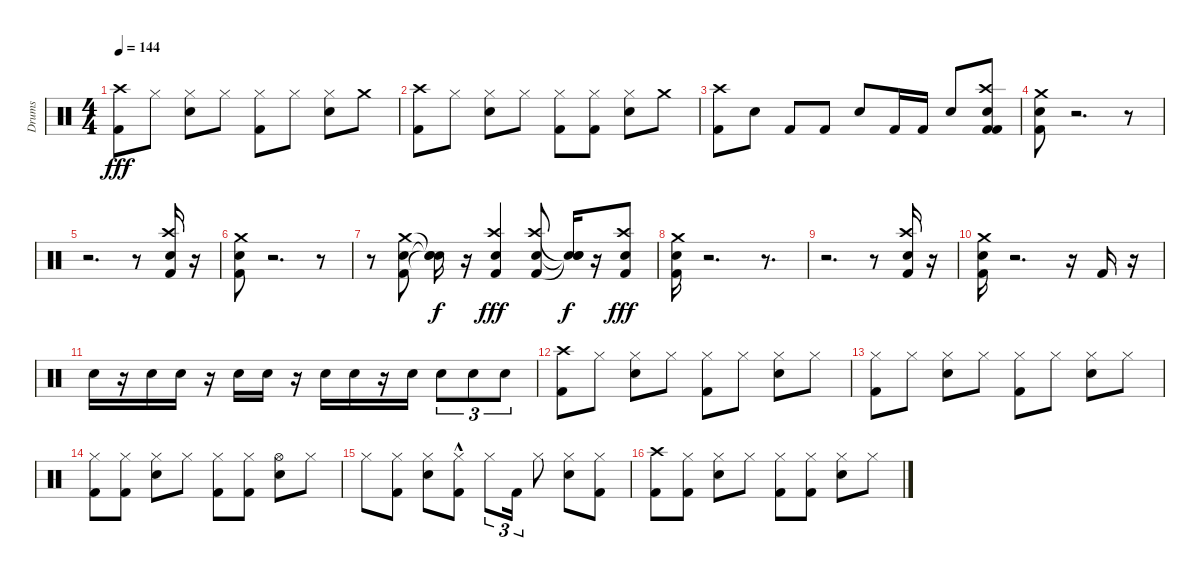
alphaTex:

\track ("Drums" "Drums") {instrument percussion}
\staff {score}
\articulation defaults
\ts (4 4)
\tempo 144
\clef neutral
\ks c
("Kick (hit) 2" "Crash high (hit)").8{dy fff} "Hi-Hat (closed)".8 ("Hi-Hat (closed)" "Snare (hit) 2").8 "Hi-Hat (closed)".8 ("Kick (hit) 2" "Hi-Hat (closed)").8 "Hi-Hat (closed)".8 ("Snare (hit) 2" "Hi-Hat (closed)").8 "Crash medium (hit)".8 |
("Kick (hit) 2" "Crash high (hit)").8 "Hi-Hat (closed)".8 ("Hi-Hat (closed)" "Snare (hit) 2").8 "Hi-Hat (closed)".8 ("Hi-Hat (closed)" "Kick (hit) 2").8 ("Hi-Hat (closed)" "Kick (hit) 2").8 ("Hi-Hat (closed)" "Snare (hit) 2").8 "Crash medium (hit)".8 |
("Crash high (hit)" "Kick (hit) 2").8 "Snare (hit) 2".8 "Kick (hit) 2".8 "Kick (hit) 2".8 "Snare (hit) 2".8 "Kick (hit) 2".16 "Kick (hit) 2".16 "Snare (hit) 2".8 ("Crash high (hit)" "Snare (hit) 2" "Kick (hit) 2" "Kick (hit) 2").8 |
("Kick (hit) 2" "Snare (hit) 2" "Crash medium (hit)").8 r.2{d} r.8 |
r.2{d} r.8 ("Kick (hit) 2" "Snare (hit) 2" "Crash high (hit)").16 r.16 |
("Kick (hit) 2" "Snare (hit) 2" "Crash medium (hit)").8 r.2{d} r.8 |
r.8 ("Kick (hit) 2" "Snare (hit) 2" "Crash medium (hit)").8 ("Snare (hit)"{t} "Snare (hit)"{t} "Snare (hit)"{t}).16{dy f} r.16 ("Kick (hit) 2" "Snare (hit) 2" "Crash high (hit)").4{dy fff} ("Kick (hit) 2" "Snare (hit) 2" "Crash high (hit)").8 ("Snare (hit)"{t} "Snare (hit)"{t} "Snare (hit)"{t}).16{dy f} r.16 ("Kick (hit) 2" "Snare (hit) 2" "Crash high (hit)").8{dy fff} |
("Kick (hit) 2" "Snare (hit) 2" "Crash medium (hit)").16 r.2{d} r.8{d} |
r.2{d} r.8 ("Kick (hit) 2" "Snare (hit) 2" "Crash high (hit)").16 r.16 |
("Kick (hit) 2" "Snare (hit) 2" "Crash medium (hit)").16 r.2{d} r.16 "Kick (hit) 2".16 r.16 |
"Snare (hit) 2".16 r.16 "Snare (hit) 2".16 "Snare (hit) 2".16 r.16 "Snare (hit) 2".16 "Snare (hit) 2".16 r.16 "Snare (hit) 2".16 "Snare (hit) 2".16 r.16 "Snare (hit) 2".16 "Snare (hit) 2".8{tu (3 2)} "Snare (hit) 2".8{tu (3 2)} "Snare (hit) 2".8{tu (3 2)} |
("Crash high (hit)" "Kick (hit) 2").8 "Hi-Hat (closed)".8 ("Snare (hit) 2" "Hi-Hat (closed)").8 "Hi-Hat (closed)".8 ("Kick (hit) 2" "Hi-Hat (closed)").8 "Hi-Hat (closed)".8 ("Snare (hit) 2" "Hi-Hat (closed)").8 "Hi-Hat (closed)".8 |
("Kick (hit) 2" "Hi-Hat (closed)").8 "Hi-Hat (closed)".8 ("Snare (hit) 2" "Hi-Hat (closed)").8 "Hi-Hat (closed)".8 ("Kick (hit) 2" "Hi-Hat (closed)").8 "Hi-Hat (closed)".8 ("Snare (hit) 2" "Hi-Hat (closed)").8 "Hi-Hat (closed)".8 |
("Kick (hit) 2" "Hi-Hat (closed)").8 ("Kick (hit) 2" "Hi-Hat (closed)").8 ("Snare (hit) 2" "Hi-Hat (closed)").8 "Hi-Hat (closed)".8 ("Kick (hit) 2" "Hi-Hat (closed)").8 ("Kick (hit) 2" "Hi-Hat (closed)").8 ("Snare (hit) 2" "Hi-Hat (open)").8 "Hi-Hat (closed)".8 |
"Hi-Hat (closed)".8 ("Kick (hit) 2" "Hi-Hat (closed)").8 ("Snare (hit) 2" "Hi-Hat (closed)").8 ("Hi-Hat (closed)" "Kick (hit) 2"{hac}).8 "Hi-Hat (closed)".8{tu (3 2)} "Kick (hit) 2".16{tu (3 2)} "Hi-Hat (closed)".8 ("Snare (hit) 2" "Hi-Hat (closed)").8 ("Hi-Hat (closed)" "Kick (hit) 2").8 |
("Kick (hit) 2" "Crash high (hit)").8 ("Kick (hit) 2" "Hi-Hat (closed)").8 ("Snare (hit) 2" "Hi-Hat (closed)").8 "Hi-Hat (closed)".8 ("Kick (hit) 2" "Hi-Hat (closed)").8 ("Kick (hit) 2" "Hi-Hat (closed)").8 ("Snare (hit) 2" "Hi-Hat (closed)").8 "Hi-Hat (closed)".8
